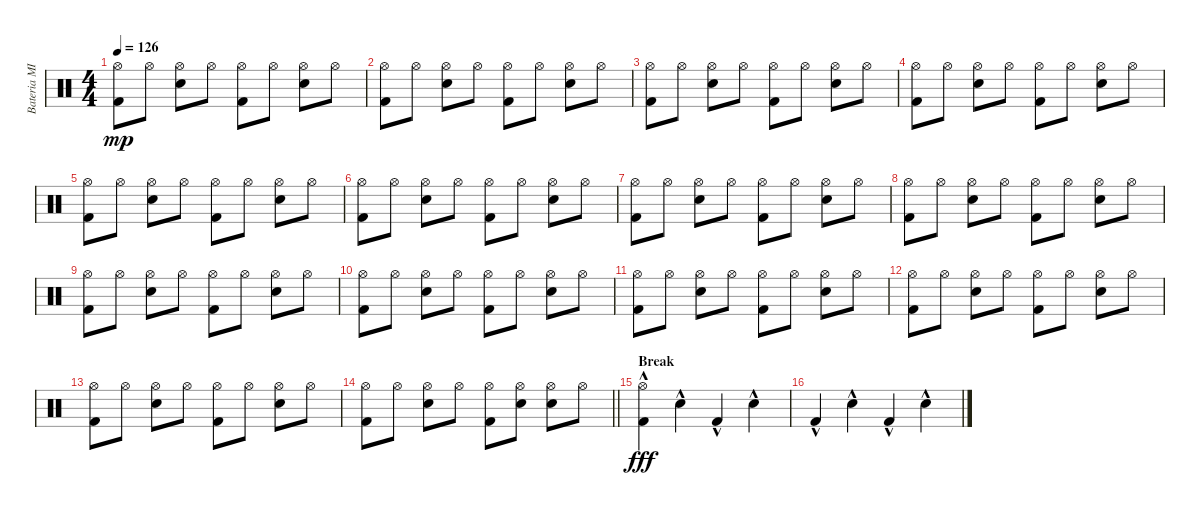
\track ("Bateria MIDI" "Bateria MI") {instrument percussion}
\staff {score}
\articulation defaults
\ts (4 4)
\tempo 126
\clef neutral
\ks c
("Hi-Hat (open)" "Kick (hit) 2").8{dy mp} "Hi-Hat (open)".8 ("Hi-Hat (open)" "Snare (hit) 2").8 "Hi-Hat (open)".8 ("Hi-Hat (open)" "Kick (hit) 2").8 "Hi-Hat (open)".8 ("Hi-Hat (open)" "Snare (hit) 2").8 "Hi-Hat (open)".8 |
("Hi-Hat (open)" "Kick (hit) 2").8 "Hi-Hat (open)".8 ("Hi-Hat (open)" "Snare (hit) 2").8 "Hi-Hat (open)".8 ("Hi-Hat (open)" "Kick (hit) 2").8 "Hi-Hat (open)".8 ("Hi-Hat (open)" "Snare (hit) 2").8 "Hi-Hat (open)".8 |
("Hi-Hat (open)" "Kick (hit) 2").8 "Hi-Hat (open)".8 ("Hi-Hat (open)" "Snare (hit) 2").8 "Hi-Hat (open)".8 ("Hi-Hat (open)" "Kick (hit) 2").8 "Hi-Hat (open)".8 ("Hi-Hat (open)" "Snare (hit) 2").8 "Hi-Hat (open)".8 |
("Hi-Hat (open)" "Kick (hit) 2").8 "Hi-Hat (open)".8 ("Hi-Hat (open)" "Snare (hit) 2").8 "Hi-Hat (open)".8 ("Hi-Hat (open)" "Kick (hit) 2").8 "Hi-Hat (open)".8 ("Hi-Hat (open)" "Snare (hit) 2").8 "Hi-Hat (open)".8 |
("Hi-Hat (open)" "Kick (hit) 2").8 "Hi-Hat (open)".8 ("Hi-Hat (open)" "Snare (hit) 2").8 "Hi-Hat (open)".8 ("Hi-Hat (open)" "Kick (hit) 2").8 "Hi-Hat (open)".8 ("Hi-Hat (open)" "Snare (hit) 2").8 "Hi-Hat (open)".8 |
("Hi-Hat (open)" "Kick (hit) 2").8 "Hi-Hat (open)".8 ("Hi-Hat (open)" "Snare (hit) 2").8 "Hi-Hat (open)".8 ("Hi-Hat (open)" "Kick (hit) 2").8 "Hi-Hat (open)".8 ("Hi-Hat (open)" "Snare (hit) 2").8 "Hi-Hat (open)".8 |
("Hi-Hat (open)" "Kick (hit) 2").8 "Hi-Hat (open)".8 ("Hi-Hat (open)" "Snare (hit) 2").8 "Hi-Hat (open)".8 ("Hi-Hat (open)" "Kick (hit) 2").8 "Hi-Hat (open)".8 ("Hi-Hat (open)" "Snare (hit) 2").8 "Hi-Hat (open)".8 |
("Hi-Hat (open)" "Kick (hit) 2").8 "Hi-Hat (open)".8 ("Hi-Hat (open)" "Snare (hit) 2").8 "Hi-Hat (open)".8 ("Hi-Hat (open)" "Kick (hit) 2").8 "Hi-Hat (open)".8 ("Hi-Hat (open)" "Snare (hit) 2").8 "Hi-Hat (open)".8 |
("Hi-Hat (open)" "Kick (hit) 2").8 "Hi-Hat (open)".8 ("Hi-Hat (open)" "Snare (hit) 2").8 "Hi-Hat (open)".8 ("Hi-Hat (open)" "Kick (hit) 2").8 "Hi-Hat (open)".8 ("Hi-Hat (open)" "Snare (hit) 2").8 "Hi-Hat (open)".8 |
("Hi-Hat (open)" "Kick (hit) 2").8 "Hi-Hat (open)".8 ("Hi-Hat (open)" "Snare (hit) 2").8 "Hi-Hat (open)".8 ("Hi-Hat (open)" "Kick (hit) 2").8 "Hi-Hat (open)".8 ("Hi-Hat (open)" "Snare (hit) 2").8 "Hi-Hat (open)".8 |
("Hi-Hat (open)" "Kick (hit) 2").8 "Hi-Hat (open)".8 ("Hi-Hat (open)" "Snare (hit) 2").8 "Hi-Hat (open)".8 ("Hi-Hat (open)" "Kick (hit) 2").8 "Hi-Hat (open)".8 ("Hi-Hat (open)" "Snare (hit) 2").8 "Hi-Hat (open)".8 |
("Hi-Hat (open)" "Kick (hit) 2").8 "Hi-Hat (open)".8 ("Hi-Hat (open)" "Snare (hit) 2").8 "Hi-Hat (open)".8 ("Hi-Hat (open)" "Kick (hit) 2").8 "Hi-Hat (open)".8 ("Hi-Hat (open)" "Snare (hit) 2").8 "Hi-Hat (open)".8 |
("Hi-Hat (open)" "Kick (hit) 2").8 "Hi-Hat (open)".8 ("Hi-Hat (open)" "Snare (hit) 2").8 "Hi-Hat (open)".8 ("Hi-Hat (open)" "Kick (hit) 2").8 "Hi-Hat (open)".8 ("Hi-Hat (open)" "Snare (hit) 2").8 "Hi-Hat (open)".8 |
\barLineRight lightlight
("Hi-Hat (open)" "Kick (hit) 2").8 "Hi-Hat (open)".8 ("Hi-Hat (open)" "Snare (hit) 2").8 "Hi-Hat (open)".8 ("Hi-Hat (open)" "Kick (hit) 2").8 ("Hi-Hat (open)" "Snare (hit) 2").8 ("Hi-Hat (open)" "Snare (hit) 2").8 "Hi-Hat (open)".8 |
\section ("" "Break")
("Hi-Hat (open)"{hac} "Kick (hit) 2"{hac}).4{dy fff} "Snare (hit) 2"{hac}.4 "Kick (hit) 2"{hac}.4 "Snare (hit) 2"{hac}.4 |
"Kick (hit) 2"{hac}.4 "Snare (hit) 2"{hac}.4 "Kick (hit) 2"{hac}.4 "Snare (hit) 2"{hac}.4
